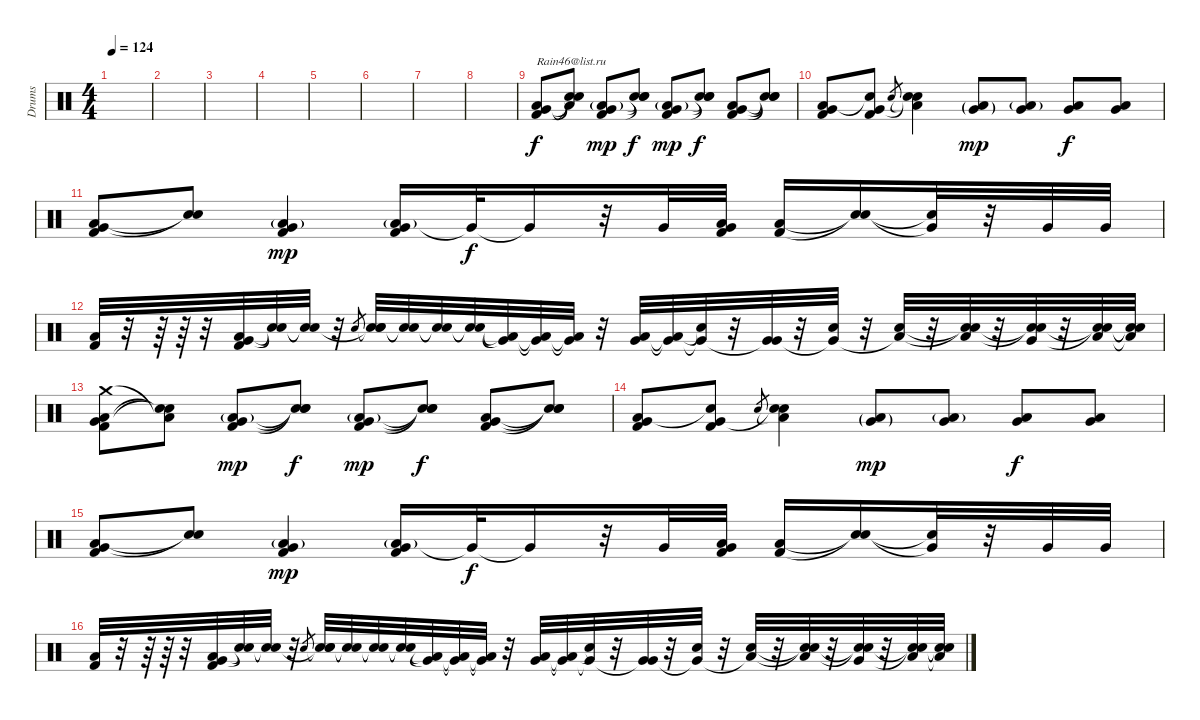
\track ("Drums" "Drums") {instrument percussion}
\staff {score}
\articulation defaults
\ts (4 4)
\tempo 124
\clef neutral
\ks c
|
|
|
|
|
|
|
|
("Low Floor Tom (hit)" "Very Low Tom (hit)" "Kick (hit) 2").8{txt "Rain46@list.ru"} ("Low Floor Tom (hit)"{t} "Snare (hit)"{t} "Snare (hit)"{t}).8 ("Low Floor Tom (hit)"{g} "Very Low Tom (hit)" "Kick (hit) 2").8{dy mp} ("Snare (hit)"{t} "Snare (hit)"{t} "Snare (hit)"{t}).8{dy f} ("Low Floor Tom (hit)"{g} "Very Low Tom (hit)" "Kick (hit) 2").8{dy mp} ("Snare (hit)"{t} "Snare (hit)"{t} "Snare (hit)"{t}).8{dy f} ("Low Floor Tom (hit)" "Very Low Tom (hit)" "Kick (hit) 2").8 ("Snare (hit)"{t} "Snare (hit)"{t} "Snare (hit)"{t}).8 |
("Low Floor Tom (hit)" "Very Low Tom (hit)" "Kick (hit) 2").8 ("Snare (hit)"{t} "Very Low Tom (hit)" "Kick (hit) 2").8 "Electric Snare (hit)".8{gr} ("Low Floor Tom (hit)"{t} "Snare (hit)"{t} "Electric Snare (hit)").4 ("Low Floor Tom (hit)"{g} "Very Low Tom (hit)"{g}).8{dy mp} ("Low Floor Tom (hit)"{g} "Very Low Tom (hit)").8 ("Low Floor Tom (hit)" "Very Low Tom (hit)").8{dy f} ("Low Floor Tom (hit)" "Very Low Tom (hit)").8 |
("Low Floor Tom (hit)" "Very Low Tom (hit)" "Kick (hit) 2").8 ("Snare (hit)"{t} "Snare (hit)"{t}).8 ("Low Floor Tom (hit)"{g} "Very Low Tom (hit)" "Kick (hit) 2").4{dy mp} ("Low Floor Tom (hit)"{g} "Very Low Tom (hit)" "Kick (hit) 2").16 "Very Low Tom (hit)"{t}.32{dy f} "Very Low Tom (hit)"{t}.16 r.32 "Very Low Tom (hit)".32 ("Low Floor Tom (hit)" "Very Low Tom (hit)" "Kick (hit) 2").32 ("Low Floor Tom (hit)" "Kick (hit) 2").16 ("Snare (hit)"{t} "Snare (hit)"{t}).16 ("Very Low Tom (hit)"{t} "Snare (hit)"{t}).32 r.32 "Very Low Tom (hit)".32 "Very Low Tom (hit)".32 |
("Low Floor Tom (hit)" "Kick (hit) 2").32 r.32 r.64 r.64 r.32 ("Low Floor Tom (hit)" "Very Low Tom (hit)" "Kick (hit) 2").32 ("Snare (hit)"{t} "Snare (hit)"{t}).32 ("Snare (hit)"{t} "Snare (hit)"{t}).32 r.32 "Electric Snare (hit)".8{gr} ("Snare (hit)"{t} "Snare (hit)"{t} "Electric Snare (hit)").32 ("Snare (hit)"{t} "Snare (hit)"{t}).32 ("Snare (hit)"{t} "Snare (hit)"{t}).32 ("Snare (hit)"{t} "Snare (hit)"{t}).32 ("Low Floor Tom (hit)"{t} "Very Low Tom (hit)"{t}).32 ("Low Floor Tom (hit)"{t} "Very Low Tom (hit)"{t}).32 ("Low Floor Tom (hit)"{t} "Very Low Tom (hit)"{t}).32 r.32 ("Low Floor Tom (hit)" "Very Low Tom (hit)").32 ("Low Floor Tom (hit)"{t} "Very Low Tom (hit)"{t}).32 ("Snare (hit)"{t} "Very Low Tom (hit)"{t}).32 r.32 ("Very Low Tom (hit)" "Very Low Tom (hit)"{t}).32 r.32 ("Electric Snare (hit)" "Very Low Tom (hit)"{t}).32 r.32 ("Electric Snare (hit)" "Low Tom (hit)"{t}).32 r.32 ("Snare (hit)"{t} "Snare (hit)"{t} "Low Tom (hit)").32 r.32 ("Snare (hit)"{t} "Very Low Tom (hit)" "Snare (hit)"{t}).32 r.32 ("Low Floor Tom (hit)" "Snare (hit)"{t} "Snare (hit)"{t}).32 ("Low Floor Tom (hit)"{t} "Snare (hit)"{t} "Snare (hit)"{t}).32 |
("Crash medium (hit)" "Low Floor Tom (hit)" "Very Low Tom (hit)" "Kick (hit) 2").8 ("Low Floor Tom (hit)"{t} "Snare (hit)"{t} "Snare (hit)"{t}).8 ("Low Floor Tom (hit)"{g} "Very Low Tom (hit)" "Kick (hit) 2").8{dy mp} ("Snare (hit)"{t} "Snare (hit)"{t} "Snare (hit)"{t}).8{dy f} ("Low Floor Tom (hit)"{g} "Very Low Tom (hit)" "Kick (hit) 2").8{dy mp} ("Snare (hit)"{t} "Snare (hit)"{t} "Snare (hit)"{t}).8{dy f} ("Low Floor Tom (hit)" "Very Low Tom (hit)" "Kick (hit) 2").8 ("Snare (hit)"{t} "Snare (hit)"{t} "Snare (hit)"{t}).8 |
("Low Floor Tom (hit)" "Very Low Tom (hit)" "Kick (hit) 2").8 ("Snare (hit)"{t} "Very Low Tom (hit)" "Kick (hit) 2").8 "Electric Snare (hit)".8{gr} ("Low Floor Tom (hit)"{t} "Snare (hit)"{t} "Electric Snare (hit)").4 ("Low Floor Tom (hit)"{g} "Very Low Tom (hit)"{g}).8{dy mp} ("Low Floor Tom (hit)"{g} "Very Low Tom (hit)").8 ("Low Floor Tom (hit)" "Very Low Tom (hit)").8{dy f} ("Low Floor Tom (hit)" "Very Low Tom (hit)").8 |
("Low Floor Tom (hit)" "Very Low Tom (hit)" "Kick (hit) 2").8 ("Snare (hit)"{t} "Snare (hit)"{t}).8 ("Low Floor Tom (hit)"{g} "Very Low Tom (hit)" "Kick (hit) 2").4{dy mp} ("Low Floor Tom (hit)"{g} "Very Low Tom (hit)" "Kick (hit) 2").16 "Very Low Tom (hit)"{t}.32{dy f} "Very Low Tom (hit)"{t}.16 r.32 "Very Low Tom (hit)".32 ("Low Floor Tom (hit)" "Very Low Tom (hit)" "Kick (hit) 2").32 ("Low Floor Tom (hit)" "Kick (hit) 2").16 ("Snare (hit)"{t} "Snare (hit)"{t}).16 ("Very Low Tom (hit)"{t} "Snare (hit)"{t}).32 r.32 "Very Low Tom (hit)".32 "Very Low Tom (hit)".32 |
("Low Floor Tom (hit)" "Kick (hit) 2").32 r.32 r.64 r.64 r.32 ("Low Floor Tom (hit)" "Very Low Tom (hit)" "Kick (hit) 2").32 ("Snare (hit)"{t} "Snare (hit)"{t}).32 ("Snare (hit)"{t} "Snare (hit)"{t}).32 r.32 "Electric Snare (hit)".8{gr} ("Snare (hit)"{t} "Snare (hit)"{t} "Electric Snare (hit)").32 ("Snare (hit)"{t} "Snare (hit)"{t}).32 ("Snare (hit)"{t} "Snare (hit)"{t}).32 ("Snare (hit)"{t} "Snare (hit)"{t}).32 ("Low Floor Tom (hit)"{t} "Very Low Tom (hit)"{t}).32 ("Low Floor Tom (hit)"{t} "Very Low Tom (hit)"{t}).32 ("Low Floor Tom (hit)"{t} "Very Low Tom (hit)"{t}).32 r.32 ("Low Floor Tom (hit)" "Very Low Tom (hit)").32 ("Low Floor Tom (hit)"{t} "Very Low Tom (hit)"{t}).32 ("Snare (hit)"{t} "Very Low Tom (hit)"{t}).32 r.32 ("Very Low Tom (hit)" "Very Low Tom (hit)"{t}).32 r.32 ("Electric Snare (hit)" "Very Low Tom (hit)"{t}).32 r.32 ("Electric Snare (hit)" "Low Tom (hit)"{t}).32 r.32 ("Snare (hit)"{t} "Snare (hit)"{t} "Low Tom (hit)").32 r.32 ("Snare (hit)"{t} "Very Low Tom (hit)" "Snare (hit)"{t}).32 r.32 ("Low Floor Tom (hit)" "Snare (hit)"{t} "Snare (hit)"{t}).32 ("Low Floor Tom (hit)"{t} "Snare (hit)"{t} "Snare (hit)"{t}).32
